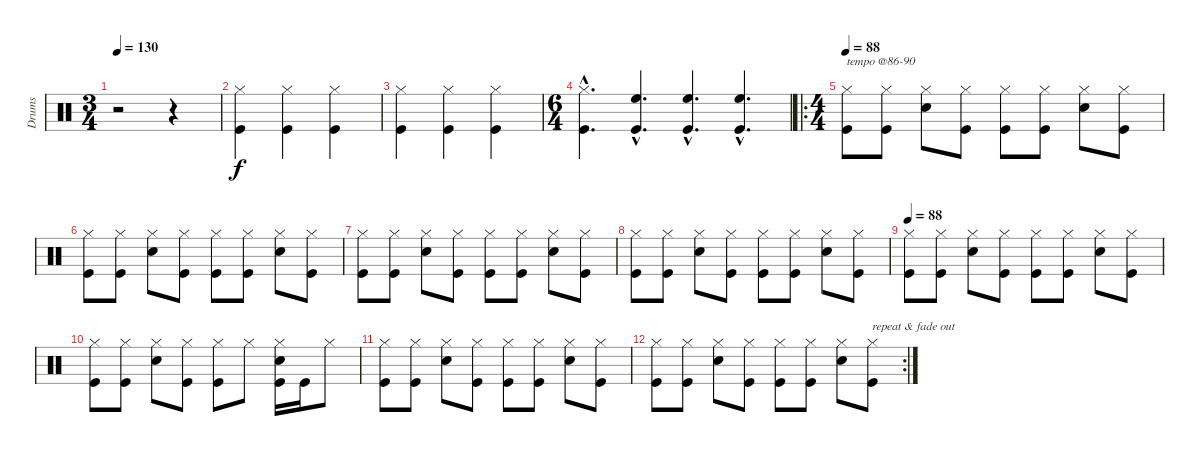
\track ("Drums" "Drums") {instrument percussion}
\staff {score}
\articulation defaults
\ts (3 4)
\tempo 130
\clef neutral
\ks c
r.2{dy f} r.4 |
("Hi-Hat (closed)" "Kick (hit)").4 ("Hi-Hat (closed)" "Kick (hit)").4 ("Hi-Hat (closed)" "Kick (hit)").4 |
("Hi-Hat (closed)" "Kick (hit)").4 ("Hi-Hat (closed)" "Kick (hit)").4 ("Hi-Hat (closed)" "Kick (hit)").4 |
\ts (6 4)
("Hi-Hat (closed)"{hac} "Kick (hit)"{hac}).4{d} ("High Floor Tom (hit)"{hac} "Kick (hit)"{hac}).4{d} ("High Floor Tom (hit)"{hac} "Kick (hit)"{hac}).4{d} ("High Floor Tom (hit)"{hac} "Kick (hit)"{hac}).4{d} |
\ro
\ts (4 4)
\tempo 88
("Hi-Hat (closed)" "Kick (hit)").8{txt "tempo @86-90"} ("Hi-Hat (closed)" "Kick (hit)").8 ("Hi-Hat (closed)" "Snare (hit) 2").8 ("Hi-Hat (closed)" "Kick (hit)").8 ("Hi-Hat (closed)" "Kick (hit)").8 ("Hi-Hat (closed)" "Kick (hit)").8 ("Hi-Hat (closed)" "Snare (hit) 2").8 ("Hi-Hat (closed)" "Kick (hit)").8 |
("Hi-Hat (closed)" "Kick (hit)").8 ("Hi-Hat (closed)" "Kick (hit)").8 ("Hi-Hat (closed)" "Snare (hit) 2").8 ("Hi-Hat (closed)" "Kick (hit)").8 ("Hi-Hat (closed)" "Kick (hit)").8 ("Hi-Hat (closed)" "Kick (hit)").8 ("Hi-Hat (closed)" "Snare (hit) 2").8 ("Hi-Hat (closed)" "Kick (hit)").8 |
("Hi-Hat (closed)" "Kick (hit)").8 ("Hi-Hat (closed)" "Kick (hit)").8 ("Hi-Hat (closed)" "Snare (hit) 2").8 ("Hi-Hat (closed)" "Kick (hit)").8 ("Hi-Hat (closed)" "Kick (hit)").8 ("Hi-Hat (closed)" "Kick (hit)").8 ("Hi-Hat (closed)" "Snare (hit) 2").8 ("Hi-Hat (closed)" "Kick (hit)").8 |
("Hi-Hat (closed)" "Kick (hit)").8 ("Hi-Hat (closed)" "Kick (hit)").8 ("Hi-Hat (closed)" "Snare (hit) 2").8 ("Hi-Hat (closed)" "Kick (hit)").8 ("Hi-Hat (closed)" "Kick (hit)").8 ("Hi-Hat (closed)" "Kick (hit)").8 ("Hi-Hat (closed)" "Snare (hit) 2").8 ("Hi-Hat (closed)" "Kick (hit)").8 |
\tempo 88
("Hi-Hat (closed)" "Kick (hit)").8 ("Hi-Hat (closed)" "Kick (hit)").8 ("Hi-Hat (closed)" "Snare (hit) 2").8 ("Hi-Hat (closed)" "Kick (hit)").8 ("Hi-Hat (closed)" "Kick (hit)").8 ("Hi-Hat (closed)" "Kick (hit)").8 ("Hi-Hat (closed)" "Snare (hit) 2").8 ("Hi-Hat (closed)" "Kick (hit)").8 |
("Hi-Hat (closed)" "Kick (hit)").8 ("Hi-Hat (closed)" "Kick (hit)").8 ("Hi-Hat (closed)" "Snare (hit) 2").8 ("Hi-Hat (closed)" "Kick (hit)").8 ("Hi-Hat (closed)" "Kick (hit)").8 "Hi-Hat (closed)".8 ("Hi-Hat (closed)" "Snare (hit) 2" "Kick (hit)").16 "Kick (hit)".16 "Hi-Hat (closed)".8 |
("Hi-Hat (closed)" "Kick (hit)").8 ("Hi-Hat (closed)" "Kick (hit)").8 ("Hi-Hat (closed)" "Snare (hit) 2").8 ("Hi-Hat (closed)" "Kick (hit)").8 ("Hi-Hat (closed)" "Kick (hit)").8 ("Hi-Hat (closed)" "Kick (hit)").8 ("Hi-Hat (closed)" "Snare (hit) 2").8 ("Hi-Hat (closed)" "Kick (hit)").8 |
\rc 2
("Hi-Hat (closed)" "Kick (hit)").8 ("Hi-Hat (closed)" "Kick (hit)").8 ("Hi-Hat (closed)" "Snare (hit) 2").8 ("Hi-Hat (closed)" "Kick (hit)").8 ("Hi-Hat (closed)" "Kick (hit)").8 ("Hi-Hat (closed)" "Kick (hit)").8 ("Hi-Hat (closed)" "Snare (hit) 2").8 ("Hi-Hat (closed)" "Kick (hit)").8{txt "repeat & fade out"}
